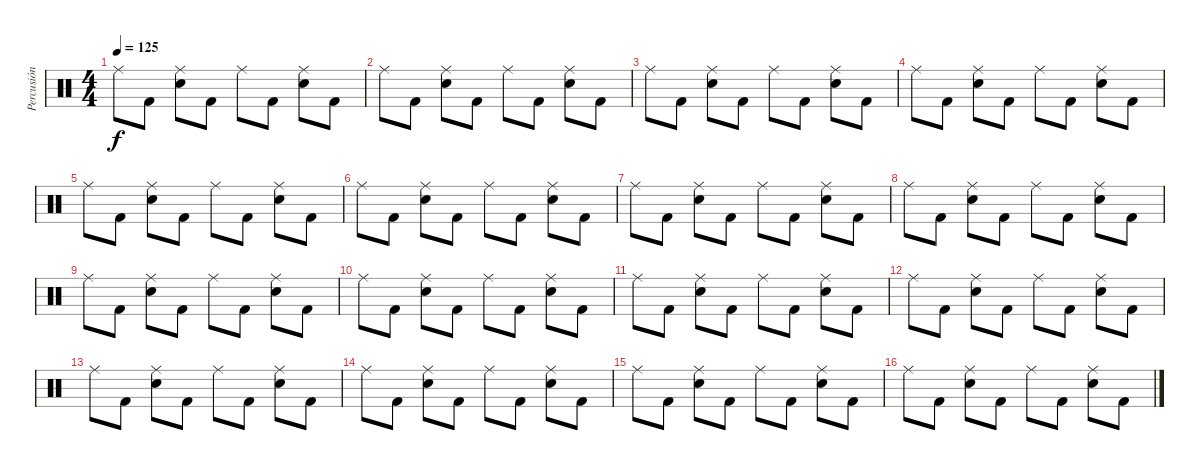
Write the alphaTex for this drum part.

\track ("Percusión" "Percusión") {instrument percussion}
\staff {score}
\articulation defaults
\ts (4 4)
\tempo 125
\clef neutral
\ks c "Ride (middle)".8{dy f} "Kick (hit) 2".8
("Ride (middle)" "Electric Snare (hit)").8 "Kick (hit) 2".8 "Ride (middle)".8 "Kick (hit) 2".8 ("Ride (middle)" "Electric Snare (hit)").8 "Kick (hit) 2".8 |
"Ride (middle)".8 "Kick (hit) 2".8 ("Ride (middle)" "Electric Snare (hit)").8 "Kick (hit) 2".8 "Ride (middle)".8 "Kick (hit) 2".8 ("Ride (middle)" "Electric Snare (hit)").8 "Kick (hit) 2".8 |
"Ride (middle)".8 "Kick (hit) 2".8 ("Ride (middle)" "Electric Snare (hit)").8 "Kick (hit) 2".8 "Ride (middle)".8 "Kick (hit) 2".8 ("Ride (middle)" "Electric Snare (hit)").8 "Kick (hit) 2".8 |
"Ride (middle)".8 "Kick (hit) 2".8 ("Ride (middle)" "Electric Snare (hit)").8 "Kick (hit) 2".8 "Ride (middle)".8 "Kick (hit) 2".8 ("Ride (middle)" "Electric Snare (hit)").8 "Kick (hit) 2".8 |
"Ride (middle)".8 "Kick (hit) 2".8 ("Ride (middle)" "Electric Snare (hit)").8 "Kick (hit) 2".8 "Ride (middle)".8 "Kick (hit) 2".8 ("Ride (middle)" "Electric Snare (hit)").8 "Kick (hit) 2".8 |
"Ride (middle)".8 "Kick (hit) 2".8 ("Ride (middle)" "Electric Snare (hit)").8 "Kick (hit) 2".8 "Ride (middle)".8 "Kick (hit) 2".8 ("Ride (middle)" "Electric Snare (hit)").8 "Kick (hit) 2".8 |
"Ride (middle)".8 "Kick (hit) 2".8 ("Ride (middle)" "Electric Snare (hit)").8 "Kick (hit) 2".8 "Ride (middle)".8 "Kick (hit) 2".8 ("Ride (middle)" "Electric Snare (hit)").8 "Kick (hit) 2".8 |
"Ride (middle)".8 "Kick (hit) 2".8 ("Ride (middle)" "Electric Snare (hit)").8 "Kick (hit) 2".8 "Ride (middle)".8 "Kick (hit) 2".8 ("Ride (middle)" "Electric Snare (hit)").8 "Kick (hit) 2".8 |
"Ride (middle)".8 "Kick (hit) 2".8 ("Ride (middle)" "Electric Snare (hit)").8 "Kick (hit) 2".8 "Ride (middle)".8 "Kick (hit) 2".8 ("Ride (middle)" "Electric Snare (hit)").8 "Kick (hit) 2".8 |
"Ride (middle)".8 "Kick (hit) 2".8 ("Ride (middle)" "Electric Snare (hit)").8 "Kick (hit) 2".8 "Ride (middle)".8 "Kick (hit) 2".8 ("Ride (middle)" "Electric Snare (hit)").8 "Kick (hit) 2".8 |
"Ride (middle)".8 "Kick (hit) 2".8 ("Ride (middle)" "Electric Snare (hit)").8 "Kick (hit) 2".8 "Ride (middle)".8 "Kick (hit) 2".8 ("Ride (middle)" "Electric Snare (hit)").8 "Kick (hit) 2".8 |
"Ride (middle)".8 "Kick (hit) 2".8 ("Ride (middle)" "Electric Snare (hit)").8 "Kick (hit) 2".8 "Ride (middle)".8 "Kick (hit) 2".8 ("Ride (middle)" "Electric Snare (hit)").8 "Kick (hit) 2".8 |
"Ride (middle)".8 "Kick (hit) 2".8 ("Ride (middle)" "Electric Snare (hit)").8 "Kick (hit) 2".8 "Ride (middle)".8 "Kick (hit) 2".8 ("Ride (middle)" "Electric Snare (hit)").8 "Kick (hit) 2".8 |
"Ride (middle)".8 "Kick (hit) 2".8 ("Ride (middle)" "Electric Snare (hit)").8 "Kick (hit) 2".8 "Ride (middle)".8 "Kick (hit) 2".8 ("Ride (middle)" "Electric Snare (hit)").8 "Kick (hit) 2".8 |
"Ride (middle)".8 "Kick (hit) 2".8 ("Ride (middle)" "Electric Snare (hit)").8 "Kick (hit) 2".8 "Ride (middle)".8 "Kick (hit) 2".8 ("Ride (middle)" "Electric Snare (hit)").8 "Kick (hit) 2".8 |
"Ride (middle)".8 "Kick (hit) 2".8 ("Ride (middle)" "Electric Snare (hit)").8 "Kick (hit) 2".8 "Ride (middle)".8 "Kick (hit) 2".8 ("Ride (middle)" "Electric Snare (hit)").8 "Kick (hit) 2".8
